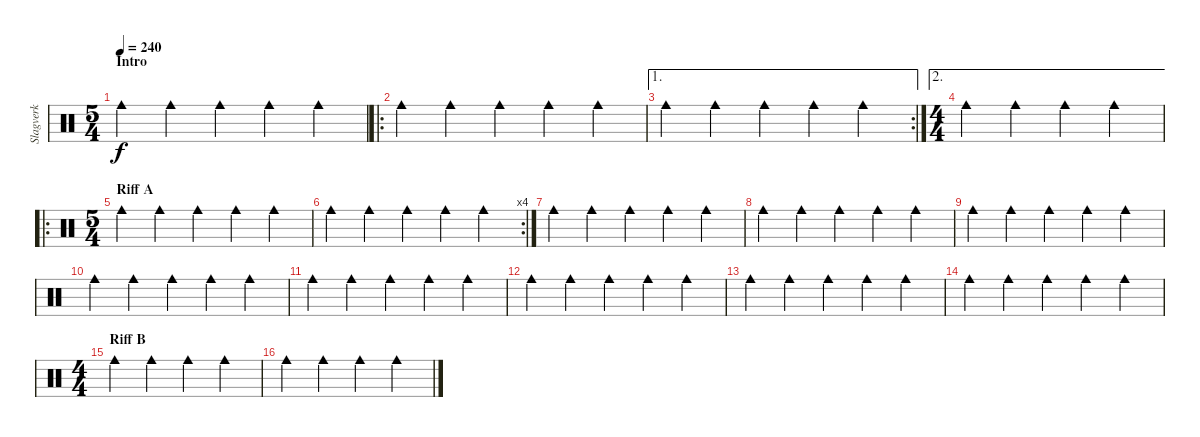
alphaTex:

\track ("Slagverk" "Slagverk") {instrument percussion}
\staff {score}
\articulation defaults
\ts (5 4)
\section ("" "Intro")
\tempo 240
\clef neutral
\ks c "Cowbell medium (hit)".4{dy f} "Cowbell medium (hit)".4 "Cowbell medium (hit)".4 "Cowbell medium (hit)".4 "Cowbell medium (hit)".4
|
\ro "Cowbell medium (hit)".4 "Cowbell medium (hit)".4 "Cowbell medium (hit)".4 "Cowbell medium (hit)".4 "Cowbell medium (hit)".4
|
\ae 1
\rc 2 "Cowbell medium (hit)".4 "Cowbell medium (hit)".4 "Cowbell medium (hit)".4 "Cowbell medium (hit)".4 "Cowbell medium (hit)".4
|
\ae 2
\ts (4 4)
"Cowbell medium (hit)".4 "Cowbell medium (hit)".4 "Cowbell medium (hit)".4 "Cowbell medium (hit)".4 |
\ro
\ts (5 4)
\section ("" "Riff A")
"Cowbell medium (hit)".4 "Cowbell medium (hit)".4 "Cowbell medium (hit)".4 "Cowbell medium (hit)".4 "Cowbell medium (hit)".4 |
\rc 4 "Cowbell medium (hit)".4 "Cowbell medium (hit)".4 "Cowbell medium (hit)".4 "Cowbell medium (hit)".4 "Cowbell medium (hit)".4
|
"Cowbell medium (hit)".4 "Cowbell medium (hit)".4 "Cowbell medium (hit)".4 "Cowbell medium (hit)".4 "Cowbell medium (hit)".4 |
"Cowbell medium (hit)".4 "Cowbell medium (hit)".4 "Cowbell medium (hit)".4 "Cowbell medium (hit)".4 "Cowbell medium (hit)".4 |
"Cowbell medium (hit)".4 "Cowbell medium (hit)".4 "Cowbell medium (hit)".4 "Cowbell medium (hit)".4 "Cowbell medium (hit)".4 |
"Cowbell medium (hit)".4 "Cowbell medium (hit)".4 "Cowbell medium (hit)".4 "Cowbell medium (hit)".4 "Cowbell medium (hit)".4 |
"Cowbell medium (hit)".4 "Cowbell medium (hit)".4 "Cowbell medium (hit)".4 "Cowbell medium (hit)".4 "Cowbell medium (hit)".4 |
"Cowbell medium (hit)".4 "Cowbell medium (hit)".4 "Cowbell medium (hit)".4 "Cowbell medium (hit)".4 "Cowbell medium (hit)".4 |
"Cowbell medium (hit)".4 "Cowbell medium (hit)".4 "Cowbell medium (hit)".4 "Cowbell medium (hit)".4 "Cowbell medium (hit)".4 |
"Cowbell medium (hit)".4 "Cowbell medium (hit)".4 "Cowbell medium (hit)".4 "Cowbell medium (hit)".4 "Cowbell medium (hit)".4 |
\ts (4 4)
\section ("" "Riff B")
"Cowbell medium (hit)".4 "Cowbell medium (hit)".4 "Cowbell medium (hit)".4 "Cowbell medium (hit)".4 |
"Cowbell medium (hit)".4 "Cowbell medium (hit)".4 "Cowbell medium (hit)".4 "Cowbell medium (hit)".4
